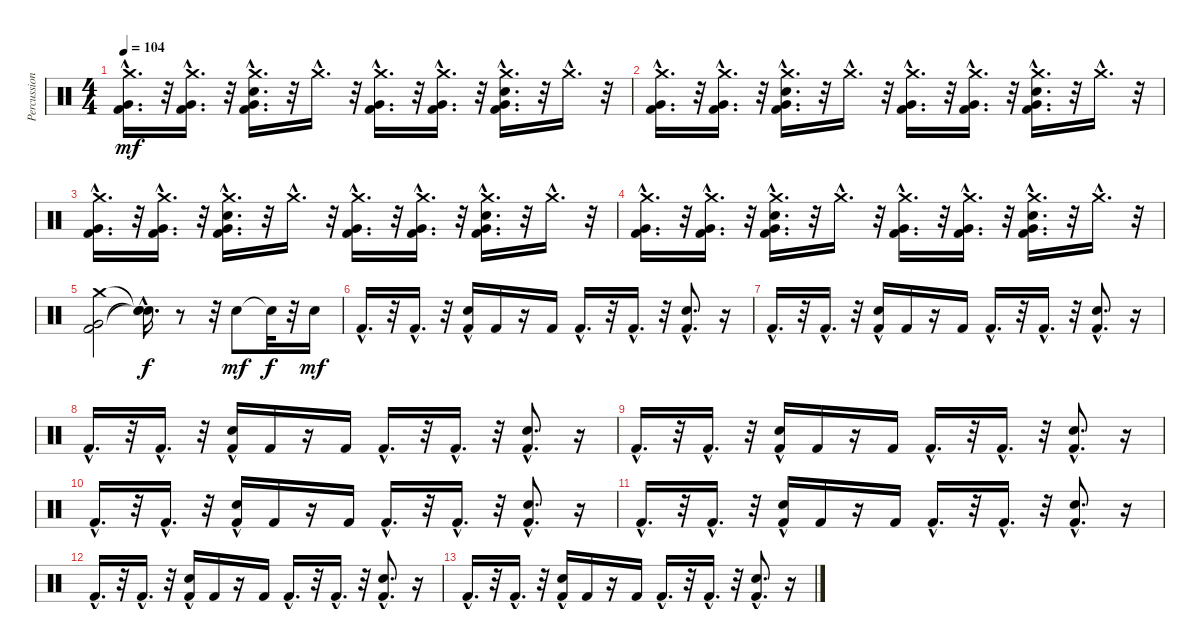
\track ("Percussion" "Percussion") {instrument percussion}
\staff {score}
\articulation defaults
\ts (4 4)
\tempo 104
\clef neutral
\ks c
("Crash medium (hit)"{hac} "Very Low Tom (hit)"{hac} "Kick (hit) 2"{hac}).16{d dy mf} r.32 ("Crash medium (hit)"{hac} "Very Low Tom (hit)"{hac} "Kick (hit) 2"{hac}).16{d} r.32 ("Very Low Tom (hit)"{hac} "Crash medium (hit)"{hac} "Kick (hit) 2"{hac} "Electric Snare (hit)"{hac}).16{d} r.32 "Crash medium (hit)"{hac}.16{d} r.32 ("Crash medium (hit)"{hac} "Very Low Tom (hit)"{hac} "Kick (hit) 2"{hac}).16{d} r.32 ("Crash medium (hit)"{hac} "Very Low Tom (hit)"{hac} "Kick (hit) 2"{hac}).16{d} r.32 ("Very Low Tom (hit)"{hac} "Crash medium (hit)"{hac} "Kick (hit) 2"{hac} "Electric Snare (hit)"{hac}).16{d} r.32 "Crash medium (hit)"{hac}.16{d} r.32 |
("Crash medium (hit)"{hac} "Very Low Tom (hit)"{hac} "Kick (hit) 2"{hac}).16{d} r.32 ("Crash medium (hit)"{hac} "Very Low Tom (hit)"{hac} "Kick (hit) 2"{hac}).16{d} r.32 ("Very Low Tom (hit)"{hac} "Crash medium (hit)"{hac} "Kick (hit) 2"{hac} "Electric Snare (hit)"{hac}).16{d} r.32 "Crash medium (hit)"{hac}.16{d} r.32 ("Crash medium (hit)"{hac} "Very Low Tom (hit)"{hac} "Kick (hit) 2"{hac}).16{d} r.32 ("Crash medium (hit)"{hac} "Very Low Tom (hit)"{hac} "Kick (hit) 2"{hac}).16{d} r.32 ("Very Low Tom (hit)"{hac} "Crash medium (hit)"{hac} "Kick (hit) 2"{hac} "Electric Snare (hit)"{hac}).16{d} r.32 "Crash medium (hit)"{hac}.16{d} r.32 |
("Crash medium (hit)"{hac} "Very Low Tom (hit)"{hac} "Kick (hit) 2"{hac}).16{d} r.32 ("Crash medium (hit)"{hac} "Very Low Tom (hit)"{hac} "Kick (hit) 2"{hac}).16{d} r.32 ("Very Low Tom (hit)"{hac} "Crash medium (hit)"{hac} "Kick (hit) 2"{hac} "Electric Snare (hit)"{hac}).16{d} r.32 "Crash medium (hit)"{hac}.16{d} r.32 ("Crash medium (hit)"{hac} "Very Low Tom (hit)"{hac} "Kick (hit) 2"{hac}).16{d} r.32 ("Crash medium (hit)"{hac} "Very Low Tom (hit)"{hac} "Kick (hit) 2"{hac}).16{d} r.32 ("Very Low Tom (hit)"{hac} "Crash medium (hit)"{hac} "Kick (hit) 2"{hac} "Electric Snare (hit)"{hac}).16{d} r.32 "Crash medium (hit)"{hac}.16{d} r.32 |
("Crash medium (hit)"{hac} "Very Low Tom (hit)"{hac} "Kick (hit) 2"{hac}).16{d} r.32 ("Crash medium (hit)"{hac} "Very Low Tom (hit)"{hac} "Kick (hit) 2"{hac}).16{d} r.32 ("Very Low Tom (hit)"{hac} "Crash medium (hit)"{hac} "Kick (hit) 2"{hac} "Electric Snare (hit)"{hac}).16{d} r.32 "Crash medium (hit)"{hac}.16{d} r.32 ("Crash medium (hit)"{hac} "Very Low Tom (hit)"{hac} "Kick (hit) 2"{hac}).16{d} r.32 ("Crash medium (hit)"{hac} "Very Low Tom (hit)"{hac} "Kick (hit) 2"{hac}).16{d} r.32 ("Very Low Tom (hit)"{hac} "Crash medium (hit)"{hac} "Kick (hit) 2"{hac} "Electric Snare (hit)"{hac}).16{d} r.32 "Crash medium (hit)"{hac}.16{d} r.32 |
("Very Low Tom (hit)" "Crash medium (hit)" "Kick (hit) 2").2 ("Snare (hit)"{hac t} "Snare (hit)"{hac t} "Snare (hit)"{hac t}).16{d dy f} r.8 r.32 "Hand Clap (hit)".8{dy mf} "Snare (hit)"{t}.32{dy f} r.32 "Hand Clap (hit)".16{dy mf} |
"Kick (hit) 2"{hac}.16{d} r.32 "Kick (hit) 2"{hac}.16{d} r.32 ("Hand Clap (hit)"{hac} "Kick (hit) 2").16 "Kick (hit) 2".16 r.16 "Kick (hit) 2".16 "Kick (hit) 2"{hac}.16{d} r.32 "Kick (hit) 2"{hac}.16{d} r.32 ("Kick (hit) 2"{hac} "Hand Clap (hit)"{hac}).8{d} r.16 |
"Kick (hit) 2"{hac}.16{d} r.32 "Kick (hit) 2"{hac}.16{d} r.32 ("Kick (hit) 2" "Hand Clap (hit)"{hac}).16 "Kick (hit) 2".16 r.16 "Kick (hit) 2".16 "Kick (hit) 2"{hac}.16{d} r.32 "Kick (hit) 2"{hac}.16{d} r.32 ("Hand Clap (hit)"{hac} "Kick (hit) 2"{hac}).8{d} r.16 |
"Kick (hit) 2"{hac}.16{d} r.32 "Kick (hit) 2"{hac}.16{d} r.32 ("Kick (hit) 2" "Hand Clap (hit)"{hac}).16 "Kick (hit) 2".16 r.16 "Kick (hit) 2".16 "Kick (hit) 2"{hac}.16{d} r.32 "Kick (hit) 2"{hac}.16{d} r.32 ("Hand Clap (hit)"{hac} "Kick (hit) 2"{hac}).8{d} r.16 |
"Kick (hit) 2"{hac}.16{d} r.32 "Kick (hit) 2"{hac}.16{d} r.32 ("Kick (hit) 2" "Hand Clap (hit)"{hac}).16 "Kick (hit) 2".16 r.16 "Kick (hit) 2".16 "Kick (hit) 2"{hac}.16{d} r.32 "Kick (hit) 2"{hac}.16{d} r.32 ("Hand Clap (hit)"{hac} "Kick (hit) 2"{hac}).8{d} r.16 |
"Kick (hit) 2"{hac}.16{d} r.32 "Kick (hit) 2"{hac}.16{d} r.32 ("Kick (hit) 2" "Hand Clap (hit)"{hac}).16 "Kick (hit) 2".16 r.16 "Kick (hit) 2".16 "Kick (hit) 2"{hac}.16{d} r.32 "Kick (hit) 2"{hac}.16{d} r.32 ("Hand Clap (hit)"{hac} "Kick (hit) 2"{hac}).8{d} r.16 |
"Kick (hit) 2"{hac}.16{d} r.32 "Kick (hit) 2"{hac}.16{d} r.32 ("Kick (hit) 2" "Hand Clap (hit)"{hac}).16 "Kick (hit) 2".16 r.16 "Kick (hit) 2".16 "Kick (hit) 2"{hac}.16{d} r.32 "Kick (hit) 2"{hac}.16{d} r.32 ("Hand Clap (hit)"{hac} "Kick (hit) 2"{hac}).8{d} r.16 |
"Kick (hit) 2"{hac}.16{d} r.32 "Kick (hit) 2"{hac}.16{d} r.32 ("Kick (hit) 2" "Hand Clap (hit)"{hac}).16 "Kick (hit) 2".16 r.16 "Kick (hit) 2".16 "Kick (hit) 2"{hac}.16{d} r.32 "Kick (hit) 2"{hac}.16{d} r.32 ("Hand Clap (hit)"{hac} "Kick (hit) 2"{hac}).8{d} r.16 |
"Kick (hit) 2"{hac}.16{d} r.32 "Kick (hit) 2"{hac}.16{d} r.32 ("Kick (hit) 2" "Hand Clap (hit)"{hac}).16 "Kick (hit) 2".16 r.16 "Kick (hit) 2".16 "Kick (hit) 2"{hac}.16{d} r.32 "Kick (hit) 2"{hac}.16{d} r.32 ("Hand Clap (hit)"{hac} "Kick (hit) 2"{hac}).8{d} r.16
